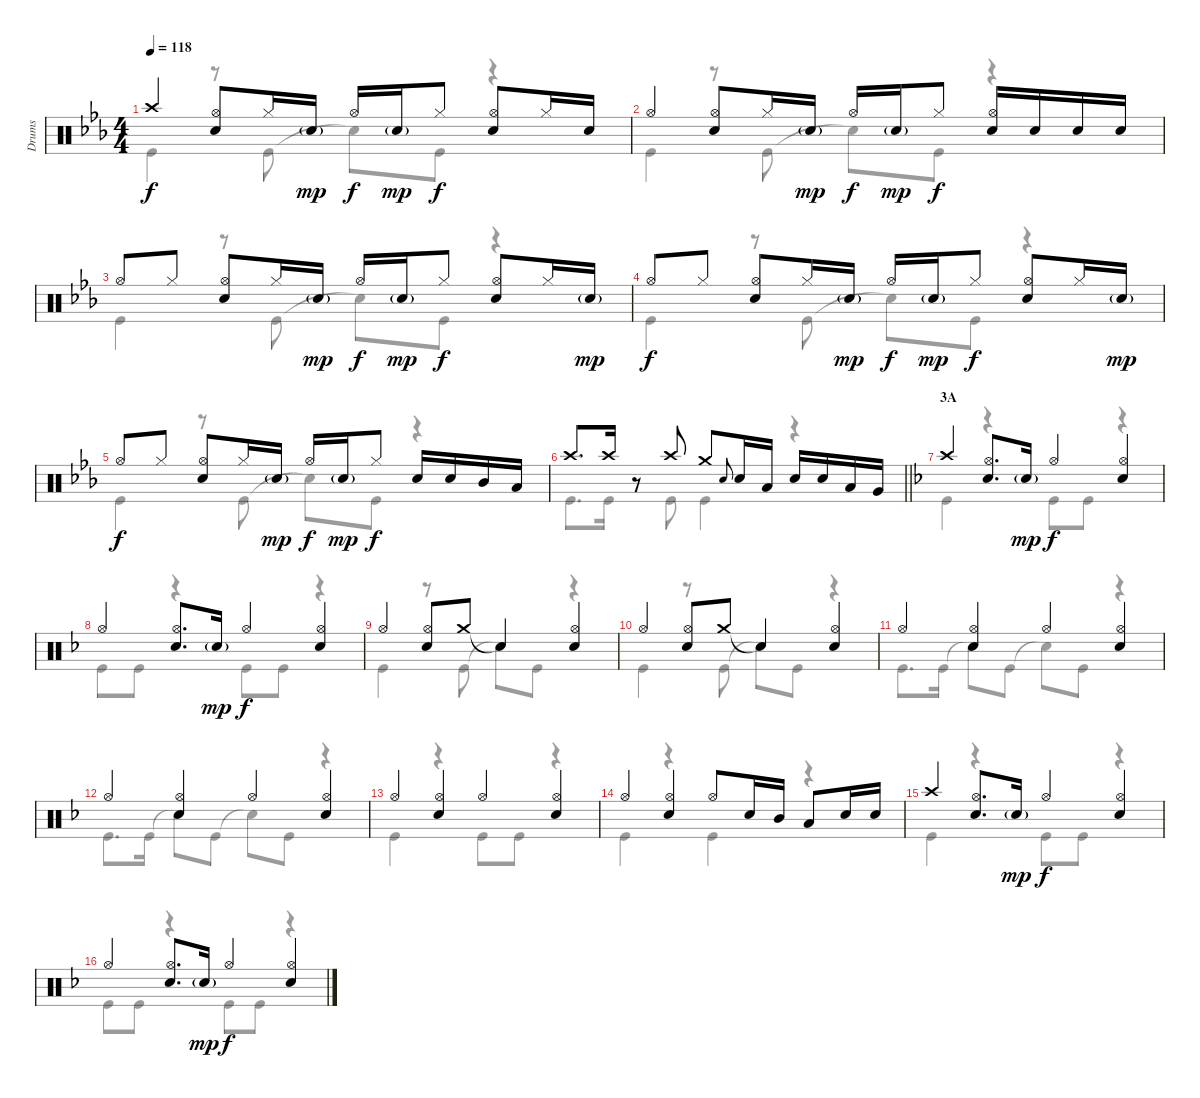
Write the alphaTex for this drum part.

\track ("Drums" "Drums") {instrument percussion}
\staff {score}
\articulation defaults
\voice
\ts (4 4)
\tempo 118
\clef neutral
\ks eb "Crash high (hit)".4{dy f}
("Hi-Hat (open)" "Snare (hit) 2").8 "Hi-Hat (closed)".16 "Snare (hit) 2"{g}.16{dy mp} "Hi-Hat (open)".16{dy f} "Snare (hit) 2"{g}.16{dy mp} "Hi-Hat (closed)".8{dy f} ("Hi-Hat (open)" "Snare (hit) 2").8 "Hi-Hat (closed)".16 "Snare (hit) 2".16 |
"Hi-Hat (open)".4 ("Hi-Hat (open)" "Snare (hit) 2").8 "Hi-Hat (closed)".16 "Snare (hit) 2"{g}.16{dy mp} "Hi-Hat (open)".16{dy f} "Snare (hit) 2"{g}.16{dy mp} "Hi-Hat (closed)".8{dy f} ("Hi-Hat (open)" "Snare (hit) 2").16 "Snare (hit) 2".16 "Snare (hit) 2".16 "Snare (hit) 2".16 |
"Hi-Hat (open)".8 "Hi-Hat (closed)".8 ("Hi-Hat (open)" "Snare (hit) 2").8 "Hi-Hat (closed)".16 "Snare (hit) 2"{g}.16{dy mp} "Hi-Hat (open)".16{dy f} "Snare (hit) 2"{g}.16{dy mp} "Hi-Hat (closed)".8{dy f} ("Hi-Hat (open)" "Snare (hit) 2").8 "Hi-Hat (closed)".16 "Snare (hit) 2"{g}.16{dy mp} |
"Hi-Hat (open)".8{dy f} "Hi-Hat (closed)".8 ("Hi-Hat (open)" "Snare (hit) 2").8 "Hi-Hat (closed)".16 "Snare (hit) 2"{g}.16{dy mp} "Hi-Hat (open)".16{dy f} "Snare (hit) 2"{g}.16{dy mp} "Hi-Hat (closed)".8{dy f} ("Hi-Hat (open)" "Snare (hit) 2").8 "Hi-Hat (closed)".16 "Snare (hit) 2"{g}.16{dy mp} |
"Hi-Hat (open)".8{dy f} "Hi-Hat (closed)".8 ("Hi-Hat (open)" "Snare (hit) 2").8 "Hi-Hat (closed)".16 "Snare (hit) 2"{g}.16{dy mp} "Hi-Hat (open)".16{dy f} "Snare (hit) 2"{g}.16{dy mp} "Hi-Hat (closed)".8{dy f} "Snare (hit) 2".16 "Snare (hit) 2".16 "Mid Tom (hit)".16 "Low Tom (hit)".16 |
\barLineRight lightlight "Crash high (hit)".8{d} "Crash high (hit)".16
r.8 "Crash high (hit)".8 "Crash medium (hit)".8 "Snare (hit) 2".8{gr onbeat} "Snare (hit) 2".16 "Low Tom (hit)".16 "Snare (hit) 2".16 "Snare (hit) 2".16 "Low Tom (hit)".16 "Very Low Tom (hit)".16 |
\section ("" "3A")
\ks f "Crash high (hit)".4
("Hi-Hat (open)" "Snare (hit) 2").8{d} "Snare (hit) 2"{g}.16{dy mp} "Hi-Hat (open)".4{dy f} ("Hi-Hat (open)" "Snare (hit) 2").4 |
"Hi-Hat (open)".4 ("Hi-Hat (open)" "Snare (hit) 2").8{d} "Snare (hit) 2"{g}.16{dy mp} "Hi-Hat (open)".4{dy f} ("Hi-Hat (open)" "Snare (hit) 2").4 |
"Hi-Hat (open)".4 ("Hi-Hat (open)" "Snare (hit) 2").8 "Crash medium (hit)".8 "Snare (hit)"{t}.4 ("Hi-Hat (open)" "Snare (hit) 2").4 |
"Hi-Hat (open)".4 ("Hi-Hat (open)" "Snare (hit) 2").8 "Crash medium (hit)".8 "Snare (hit)"{t}.4 ("Hi-Hat (open)" "Snare (hit) 2").4 |
"Hi-Hat (open)".4 ("Hi-Hat (open)" "Snare (hit) 2").4 "Hi-Hat (open)".4 ("Hi-Hat (open)" "Snare (hit) 2").4 |
"Hi-Hat (open)".4 ("Hi-Hat (open)" "Snare (hit) 2").4 "Hi-Hat (open)".4 ("Hi-Hat (open)" "Snare (hit) 2").4 |
"Hi-Hat (open)".4 ("Hi-Hat (open)" "Snare (hit) 2").4 "Hi-Hat (open)".4 ("Hi-Hat (open)" "Snare (hit) 2").4 |
"Hi-Hat (open)".4 ("Hi-Hat (open)" "Snare (hit) 2").4 "Hi-Hat (open)".8 "Snare (hit) 2".16 "Mid Tom (hit)".16 "Low Tom (hit)".8 "Snare (hit) 2".16 "Snare (hit) 2".16 |
"Crash high (hit)".4 ("Hi-Hat (open)" "Snare (hit) 2").8{d} "Snare (hit) 2"{g}.16{dy mp} "Hi-Hat (open)".4{dy f} ("Hi-Hat (open)" "Snare (hit) 2").4 |
"Hi-Hat (open)".4 ("Hi-Hat (open)" "Snare (hit) 2").8{d} "Snare (hit) 2"{g}.16{dy mp} "Hi-Hat (open)".4{dy f} ("Hi-Hat (open)" "Snare (hit) 2").4
\voice
\clef neutral
\ottava regular
\simile none
\ks eb "Kick (hit)".4{dy f}
r.8 "Kick (hit)".8 "Snare (hit)"{t}.8 "Kick (hit)".8 r.4 |
"Kick (hit)".4 r.8 "Kick (hit)".8 "Snare (hit)"{t}.8 "Kick (hit)".8 r.4 |
"Kick (hit)".4 r.8 "Kick (hit)".8 "Snare (hit)"{t}.8 "Kick (hit)".8 r.4 |
"Kick (hit)".4 r.8 "Kick (hit)".8 "Snare (hit)"{t}.8 "Kick (hit)".8 r.4 |
"Kick (hit)".4 r.8 "Kick (hit)".8 "Snare (hit)"{t}.8 "Kick (hit)".8 r.4 |
\barLineRight lightlight "Kick (hit)".8{d} "Kick (hit)".16
r.8 "Kick (hit)".8 "Kick (hit)".4 r.4 |
\ks f "Kick (hit)".4
r.4 "Kick (hit)".8 "Kick (hit)".8 r.4 |
"Kick (hit)".8 "Kick (hit)".8 r.4 "Kick (hit)".8 "Kick (hit)".8 r.4 |
"Kick (hit)".4 r.8 "Kick (hit)".8 "Snare (hit)"{t}.8 "Kick (hit)".8 r.4 |
"Kick (hit)".4 r.8 "Kick (hit)".8 "Snare (hit)"{t}.8 "Kick (hit)".8 r.4 |
"Kick (hit)".8{d} "Kick (hit)".16 "Snare (hit)"{t}.8 "Kick (hit)".8 "Snare (hit)"{t}.8 "Kick (hit)".8 r.4 |
"Kick (hit)".8{d} "Kick (hit)".16 "Snare (hit)"{t}.8 "Kick (hit)".8 "Snare (hit)"{t}.8 "Kick (hit)".8 r.4 |
"Kick (hit)".4 r.4 "Kick (hit)".8 "Kick (hit)".8 r.4 |
"Kick (hit)".4 r.4 "Kick (hit)".4 r.4 |
"Kick (hit)".4 r.4 "Kick (hit)".8 "Kick (hit)".8 r.4 |
"Kick (hit)".8 "Kick (hit)".8 r.4 "Kick (hit)".8 "Kick (hit)".8 r.4
